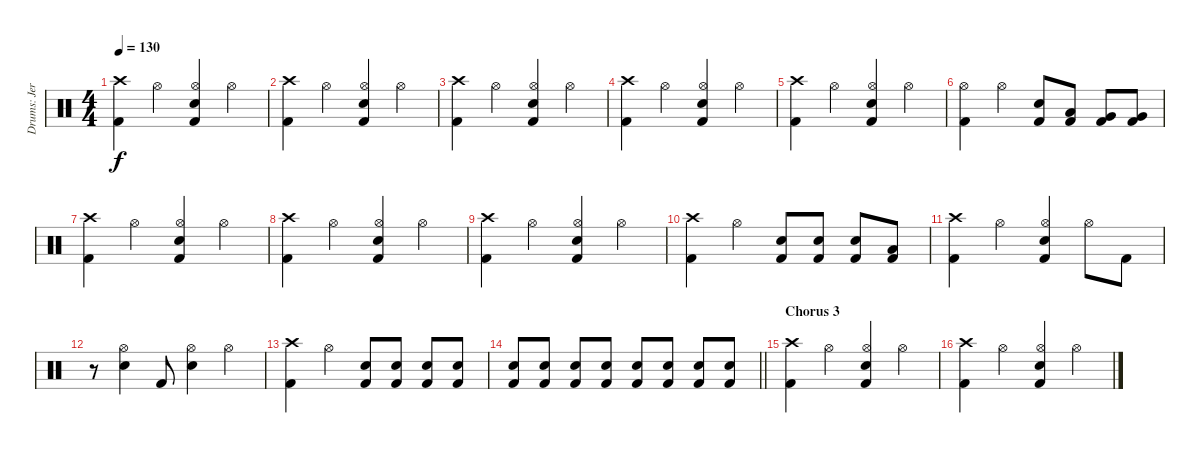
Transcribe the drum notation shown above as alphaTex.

\track ("Drums: Jere Luokkamäki" "Drums: Jer") {instrument percussion}
\staff {score}
\articulation defaults
\ts (4 4)
\tempo 130
\clef neutral
\ks aminor
("Crash high (hit)" "Kick (hit) 2").4{dy f} "Hi-Hat (open)".4 ("Hi-Hat (open)" "Electric Snare (hit)" "Kick (hit) 2").4 "Hi-Hat (open)".4 |
("Crash high (hit)" "Kick (hit) 2").4 "Hi-Hat (open)".4 ("Hi-Hat (open)" "Electric Snare (hit)" "Kick (hit) 2").4 "Hi-Hat (open)".4 |
("Crash high (hit)" "Kick (hit) 2").4 "Hi-Hat (open)".4 ("Hi-Hat (open)" "Electric Snare (hit)" "Kick (hit) 2").4 "Hi-Hat (open)".4 |
("Crash high (hit)" "Kick (hit) 2").4 "Hi-Hat (open)".4 ("Hi-Hat (open)" "Electric Snare (hit)" "Kick (hit) 2").4 "Hi-Hat (open)".4 |
("Crash high (hit)" "Kick (hit) 2").4 "Hi-Hat (open)".4 ("Hi-Hat (open)" "Electric Snare (hit)" "Kick (hit) 2").4 "Hi-Hat (open)".4 |
("Hi-Hat (open)" "Kick (hit) 2").4 "Hi-Hat (open)".4 ("Electric Snare (hit)" "Kick (hit) 2").8 ("Low Tom (hit)" "Kick (hit) 2").8 ("Very Low Tom (hit)" "Kick (hit) 2").8 ("Very Low Tom (hit)" "Kick (hit) 2").8 |
("Crash high (hit)" "Kick (hit) 2").4 "Hi-Hat (open)".4 ("Hi-Hat (open)" "Electric Snare (hit)" "Kick (hit) 2").4 "Hi-Hat (open)".4 |
("Crash high (hit)" "Kick (hit) 2").4 "Hi-Hat (open)".4 ("Hi-Hat (open)" "Electric Snare (hit)" "Kick (hit) 2").4 "Hi-Hat (open)".4 |
("Crash high (hit)" "Kick (hit) 2").4 "Hi-Hat (open)".4 ("Hi-Hat (open)" "Electric Snare (hit)" "Kick (hit) 2").4 "Hi-Hat (open)".4 |
("Crash high (hit)" "Kick (hit) 2").4 "Hi-Hat (open)".4 ("Electric Snare (hit)" "Kick (hit) 2").8 ("Electric Snare (hit)" "Kick (hit) 2").8 ("Electric Snare (hit)" "Kick (hit) 2").8 ("Low Tom (hit)" "Kick (hit) 2").8 |
("Crash high (hit)" "Kick (hit) 2").4 "Hi-Hat (open)".4 ("Hi-Hat (open)" "Electric Snare (hit)" "Kick (hit) 2").4 "Hi-Hat (open)".8 "Kick (hit) 2".8 |
r.8 ("Hi-Hat (open)" "Electric Snare (hit)").4 "Kick (hit) 2".8 ("Hi-Hat (open)" "Electric Snare (hit)").4 "Hi-Hat (open)".4 |
("Crash high (hit)" "Kick (hit) 2").4 "Hi-Hat (open)".4 ("Electric Snare (hit)" "Kick (hit) 2").8 ("Electric Snare (hit)" "Kick (hit) 2").8 ("Electric Snare (hit)" "Kick (hit) 2").8 ("Electric Snare (hit)" "Kick (hit) 2").8 |
\barLineRight lightlight
("Electric Snare (hit)" "Kick (hit) 2").8 ("Electric Snare (hit)" "Kick (hit) 2").8 ("Electric Snare (hit)" "Kick (hit) 2").8 ("Electric Snare (hit)" "Kick (hit) 2").8 ("Electric Snare (hit)" "Kick (hit) 2").8 ("Electric Snare (hit)" "Kick (hit) 2").8 ("Electric Snare (hit)" "Kick (hit) 2").8 ("Electric Snare (hit)" "Kick (hit) 2").8 |
\section ("" "Chorus 3")
("Crash high (hit)" "Kick (hit) 2").4 "Hi-Hat (open)".4 ("Hi-Hat (open)" "Electric Snare (hit)" "Kick (hit) 2").4 "Hi-Hat (open)".4 |
("Crash high (hit)" "Kick (hit) 2").4 "Hi-Hat (open)".4 ("Hi-Hat (open)" "Electric Snare (hit)" "Kick (hit) 2").4 "Hi-Hat (open)".4
